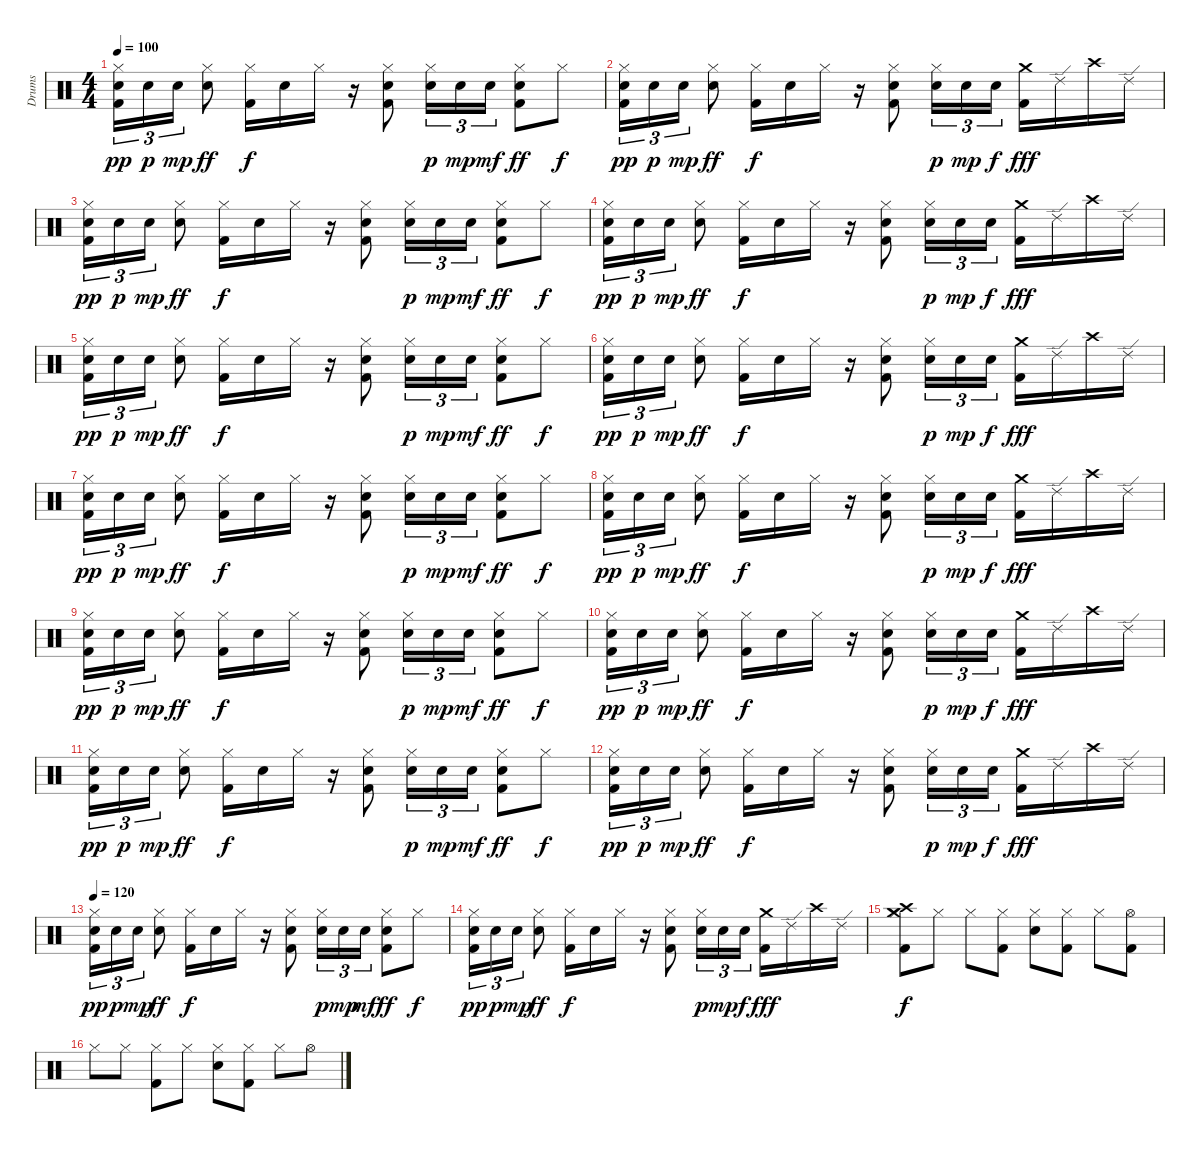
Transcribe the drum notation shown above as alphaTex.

\track ("Drums" "Drums") {instrument percussion}
\staff {score}
\articulation defaults
\ts (4 4)
\tempo 100
\clef neutral
\ks c
("Hi-Hat (closed)" "Snare (hit) 2" "Kick (hit) 2").16{tu (3 2) dy pp} "Snare (hit) 2".16{tu (3 2) dy p} "Snare (hit) 2".16{tu (3 2) dy mp} ("Hi-Hat (closed)" "Snare (hit) 2").8{dy ff} ("Hi-Hat (closed)" "Kick (hit) 2").16{dy f} "Snare (hit) 2".16 "Hi-Hat (closed)".16 r.16 ("Hi-Hat (closed)" "Snare (hit) 2" "Kick (hit) 2").8 ("Hi-Hat (closed)" "Snare (hit) 2").16{tu (3 2) dy p} "Snare (hit) 2".16{tu (3 2) dy mp} "Snare (hit) 2".16{tu (3 2) dy mf} ("Hi-Hat (closed)" "Snare (hit) 2" "Kick (hit) 2").8{dy ff} "Hi-Hat (closed)".8{dy f} |
("Hi-Hat (closed)" "Snare (hit) 2" "Kick (hit) 2").16{tu (3 2) dy pp} "Snare (hit) 2".16{tu (3 2) dy p} "Snare (hit) 2".16{tu (3 2) dy mp} ("Hi-Hat (closed)" "Snare (hit) 2").8{dy ff} ("Hi-Hat (closed)" "Kick (hit) 2").16{dy f} "Snare (hit) 2".16 "Hi-Hat (closed)".16 r.16 ("Hi-Hat (closed)" "Snare (hit) 2" "Kick (hit) 2").8 ("Hi-Hat (closed)" "Snare (hit) 2").16{tu (3 2) dy p} "Snare (hit) 2".16{tu (3 2) dy mp} "Snare (hit) 2".16{tu (3 2) dy f} ("Crash medium (hit)" "Kick (hit) 2").16{dy fff} "Ride (edge) 2".16 "Crash high (hit)".16 "Ride (edge) 2".16 |
("Hi-Hat (closed)" "Snare (hit) 2" "Kick (hit) 2").16{tu (3 2) dy pp} "Snare (hit) 2".16{tu (3 2) dy p} "Snare (hit) 2".16{tu (3 2) dy mp} ("Hi-Hat (closed)" "Snare (hit) 2").8{dy ff} ("Hi-Hat (closed)" "Kick (hit) 2").16{dy f} "Snare (hit) 2".16 "Hi-Hat (closed)".16 r.16 ("Hi-Hat (closed)" "Snare (hit) 2" "Kick (hit) 2").8 ("Hi-Hat (closed)" "Snare (hit) 2").16{tu (3 2) dy p} "Snare (hit) 2".16{tu (3 2) dy mp} "Snare (hit) 2".16{tu (3 2) dy mf} ("Hi-Hat (closed)" "Snare (hit) 2" "Kick (hit) 2").8{dy ff} "Hi-Hat (closed)".8{dy f} |
("Hi-Hat (closed)" "Snare (hit) 2" "Kick (hit) 2").16{tu (3 2) dy pp} "Snare (hit) 2".16{tu (3 2) dy p} "Snare (hit) 2".16{tu (3 2) dy mp} ("Hi-Hat (closed)" "Snare (hit) 2").8{dy ff} ("Hi-Hat (closed)" "Kick (hit) 2").16{dy f} "Snare (hit) 2".16 "Hi-Hat (closed)".16 r.16 ("Hi-Hat (closed)" "Snare (hit) 2" "Kick (hit) 2").8 ("Hi-Hat (closed)" "Snare (hit) 2").16{tu (3 2) dy p} "Snare (hit) 2".16{tu (3 2) dy mp} "Snare (hit) 2".16{tu (3 2) dy f} ("Crash medium (hit)" "Kick (hit) 2").16{dy fff} "Ride (edge) 2".16 "Crash high (hit)".16 "Ride (edge) 2".16 |
("Hi-Hat (closed)" "Snare (hit) 2" "Kick (hit) 2").16{tu (3 2) dy pp} "Snare (hit) 2".16{tu (3 2) dy p} "Snare (hit) 2".16{tu (3 2) dy mp} ("Hi-Hat (closed)" "Snare (hit) 2").8{dy ff} ("Hi-Hat (closed)" "Kick (hit) 2").16{dy f} "Snare (hit) 2".16 "Hi-Hat (closed)".16 r.16 ("Hi-Hat (closed)" "Snare (hit) 2" "Kick (hit) 2").8 ("Hi-Hat (closed)" "Snare (hit) 2").16{tu (3 2) dy p} "Snare (hit) 2".16{tu (3 2) dy mp} "Snare (hit) 2".16{tu (3 2) dy mf} ("Hi-Hat (closed)" "Snare (hit) 2" "Kick (hit) 2").8{dy ff} "Hi-Hat (closed)".8{dy f} |
("Hi-Hat (closed)" "Snare (hit) 2" "Kick (hit) 2").16{tu (3 2) dy pp} "Snare (hit) 2".16{tu (3 2) dy p} "Snare (hit) 2".16{tu (3 2) dy mp} ("Hi-Hat (closed)" "Snare (hit) 2").8{dy ff} ("Hi-Hat (closed)" "Kick (hit) 2").16{dy f} "Snare (hit) 2".16 "Hi-Hat (closed)".16 r.16 ("Hi-Hat (closed)" "Snare (hit) 2" "Kick (hit) 2").8 ("Hi-Hat (closed)" "Snare (hit) 2").16{tu (3 2) dy p} "Snare (hit) 2".16{tu (3 2) dy mp} "Snare (hit) 2".16{tu (3 2) dy f} ("Crash medium (hit)" "Kick (hit) 2").16{dy fff} "Ride (edge) 2".16 "Crash high (hit)".16 "Ride (edge) 2".16 |
("Hi-Hat (closed)" "Snare (hit) 2" "Kick (hit) 2").16{tu (3 2) dy pp} "Snare (hit) 2".16{tu (3 2) dy p} "Snare (hit) 2".16{tu (3 2) dy mp} ("Hi-Hat (closed)" "Snare (hit) 2").8{dy ff} ("Hi-Hat (closed)" "Kick (hit) 2").16{dy f} "Snare (hit) 2".16 "Hi-Hat (closed)".16 r.16 ("Hi-Hat (closed)" "Snare (hit) 2" "Kick (hit) 2").8 ("Hi-Hat (closed)" "Snare (hit) 2").16{tu (3 2) dy p} "Snare (hit) 2".16{tu (3 2) dy mp} "Snare (hit) 2".16{tu (3 2) dy mf} ("Hi-Hat (closed)" "Snare (hit) 2" "Kick (hit) 2").8{dy ff} "Hi-Hat (closed)".8{dy f} |
("Hi-Hat (closed)" "Snare (hit) 2" "Kick (hit) 2").16{tu (3 2) dy pp} "Snare (hit) 2".16{tu (3 2) dy p} "Snare (hit) 2".16{tu (3 2) dy mp} ("Hi-Hat (closed)" "Snare (hit) 2").8{dy ff} ("Hi-Hat (closed)" "Kick (hit) 2").16{dy f} "Snare (hit) 2".16 "Hi-Hat (closed)".16 r.16 ("Hi-Hat (closed)" "Snare (hit) 2" "Kick (hit) 2").8 ("Hi-Hat (closed)" "Snare (hit) 2").16{tu (3 2) dy p} "Snare (hit) 2".16{tu (3 2) dy mp} "Snare (hit) 2".16{tu (3 2) dy f} ("Crash medium (hit)" "Kick (hit) 2").16{dy fff} "Ride (edge) 2".16 "Crash high (hit)".16 "Ride (edge) 2".16 |
("Hi-Hat (closed)" "Snare (hit) 2" "Kick (hit) 2").16{tu (3 2) dy pp} "Snare (hit) 2".16{tu (3 2) dy p} "Snare (hit) 2".16{tu (3 2) dy mp} ("Hi-Hat (closed)" "Snare (hit) 2").8{dy ff} ("Hi-Hat (closed)" "Kick (hit) 2").16{dy f} "Snare (hit) 2".16 "Hi-Hat (closed)".16 r.16 ("Hi-Hat (closed)" "Snare (hit) 2" "Kick (hit) 2").8 ("Hi-Hat (closed)" "Snare (hit) 2").16{tu (3 2) dy p} "Snare (hit) 2".16{tu (3 2) dy mp} "Snare (hit) 2".16{tu (3 2) dy mf} ("Hi-Hat (closed)" "Snare (hit) 2" "Kick (hit) 2").8{dy ff} "Hi-Hat (closed)".8{dy f} |
("Hi-Hat (closed)" "Snare (hit) 2" "Kick (hit) 2").16{tu (3 2) dy pp} "Snare (hit) 2".16{tu (3 2) dy p} "Snare (hit) 2".16{tu (3 2) dy mp} ("Hi-Hat (closed)" "Snare (hit) 2").8{dy ff} ("Hi-Hat (closed)" "Kick (hit) 2").16{dy f} "Snare (hit) 2".16 "Hi-Hat (closed)".16 r.16 ("Hi-Hat (closed)" "Snare (hit) 2" "Kick (hit) 2").8 ("Hi-Hat (closed)" "Snare (hit) 2").16{tu (3 2) dy p} "Snare (hit) 2".16{tu (3 2) dy mp} "Snare (hit) 2".16{tu (3 2) dy f} ("Crash medium (hit)" "Kick (hit) 2").16{dy fff} "Ride (edge) 2".16 "Crash high (hit)".16 "Ride (edge) 2".16 |
("Hi-Hat (closed)" "Snare (hit) 2" "Kick (hit) 2").16{tu (3 2) dy pp} "Snare (hit) 2".16{tu (3 2) dy p} "Snare (hit) 2".16{tu (3 2) dy mp} ("Hi-Hat (closed)" "Snare (hit) 2").8{dy ff} ("Hi-Hat (closed)" "Kick (hit) 2").16{dy f} "Snare (hit) 2".16 "Hi-Hat (closed)".16 r.16 ("Hi-Hat (closed)" "Snare (hit) 2" "Kick (hit) 2").8 ("Hi-Hat (closed)" "Snare (hit) 2").16{tu (3 2) dy p} "Snare (hit) 2".16{tu (3 2) dy mp} "Snare (hit) 2".16{tu (3 2) dy mf} ("Hi-Hat (closed)" "Snare (hit) 2" "Kick (hit) 2").8{dy ff} "Hi-Hat (closed)".8{dy f} |
("Hi-Hat (closed)" "Snare (hit) 2" "Kick (hit) 2").16{tu (3 2) dy pp} "Snare (hit) 2".16{tu (3 2) dy p} "Snare (hit) 2".16{tu (3 2) dy mp} ("Hi-Hat (closed)" "Snare (hit) 2").8{dy ff} ("Hi-Hat (closed)" "Kick (hit) 2").16{dy f} "Snare (hit) 2".16 "Hi-Hat (closed)".16 r.16 ("Hi-Hat (closed)" "Snare (hit) 2" "Kick (hit) 2").8 ("Hi-Hat (closed)" "Snare (hit) 2").16{tu (3 2) dy p} "Snare (hit) 2".16{tu (3 2) dy mp} "Snare (hit) 2".16{tu (3 2) dy f} ("Crash medium (hit)" "Kick (hit) 2").16{dy fff} "Ride (edge) 2".16 "Crash high (hit)".16 "Ride (edge) 2".16 |
\tempo 120
("Hi-Hat (closed)" "Snare (hit) 2" "Kick (hit) 2").16{tu (3 2) dy pp} "Snare (hit) 2".16{tu (3 2) dy p} "Snare (hit) 2".16{tu (3 2) dy mp} ("Hi-Hat (closed)" "Snare (hit) 2").8{dy ff} ("Hi-Hat (closed)" "Kick (hit) 2").16{dy f} "Snare (hit) 2".16 "Hi-Hat (closed)".16 r.16 ("Hi-Hat (closed)" "Snare (hit) 2" "Kick (hit) 2").8 ("Hi-Hat (closed)" "Snare (hit) 2").16{tu (3 2) dy p} "Snare (hit) 2".16{tu (3 2) dy mp} "Snare (hit) 2".16{tu (3 2) dy mf} ("Hi-Hat (closed)" "Snare (hit) 2" "Kick (hit) 2").8{dy ff} "Hi-Hat (closed)".8{dy f} |
("Hi-Hat (closed)" "Snare (hit) 2" "Kick (hit) 2").16{tu (3 2) dy pp} "Snare (hit) 2".16{tu (3 2) dy p} "Snare (hit) 2".16{tu (3 2) dy mp} ("Hi-Hat (closed)" "Snare (hit) 2").8{dy ff} ("Hi-Hat (closed)" "Kick (hit) 2").16{dy f} "Snare (hit) 2".16 "Hi-Hat (closed)".16 r.16 ("Hi-Hat (closed)" "Snare (hit) 2" "Kick (hit) 2").8 ("Hi-Hat (closed)" "Snare (hit) 2").16{tu (3 2) dy p} "Snare (hit) 2".16{tu (3 2) dy mp} "Snare (hit) 2".16{tu (3 2) dy f} ("Crash medium (hit)" "Kick (hit) 2").16{dy fff} "Ride (edge) 2".16 "Crash high (hit)".16 "Ride (edge) 2".16 |
("Crash medium (hit)" "Crash high (hit)" "Hi-Hat (closed)" "Kick (hit) 2").8{dy f} "Hi-Hat (closed)".8 "Hi-Hat (closed)".8 ("Hi-Hat (closed)" "Kick (hit) 2").8 ("Hi-Hat (closed)" "Snare (hit) 2").8 ("Hi-Hat (closed)" "Kick (hit) 2").8 "Hi-Hat (closed)".8 ("Hi-Hat (open)" "Kick (hit) 2").8 |
"Hi-Hat (closed)".8 "Hi-Hat (closed)".8 ("Hi-Hat (closed)" "Kick (hit) 2").8 "Hi-Hat (closed)".8 ("Hi-Hat (closed)" "Snare (hit) 2").8 ("Hi-Hat (closed)" "Kick (hit) 2").8 "Hi-Hat (closed)".8 "Hi-Hat (open)".8
